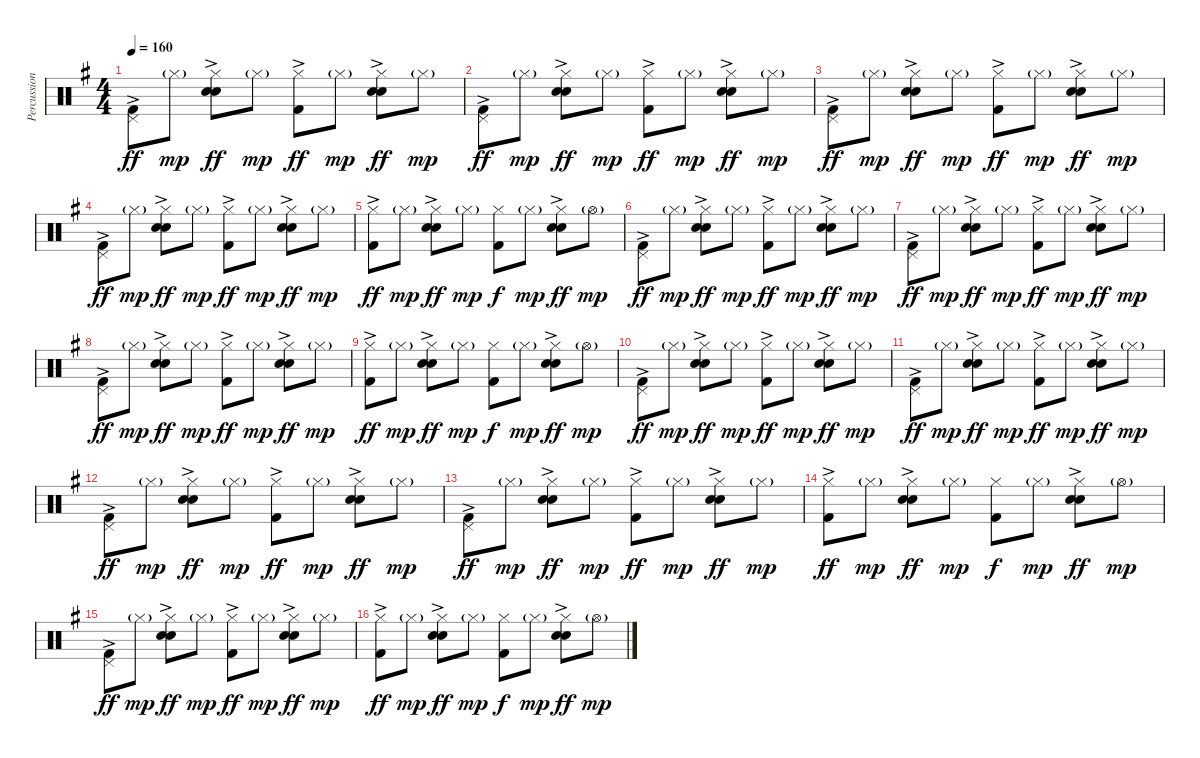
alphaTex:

\track ("Percussion" "Percussion") {instrument percussion}
\staff {score}
\articulation defaults
\ts (4 4)
\tempo 160
\clef neutral
\ks g
("Pedal Hi-Hat (hit)" "Kick (hit) 2"{ac}).8{dy ff} "Hi-Hat (closed)"{g}.8{dy mp} ("Hi-Hat (closed)" "Electric Snare (hit)"{ac} "Snare (hit) 2").8{dy ff} "Hi-Hat (closed)"{g}.8{dy mp} ("Hi-Hat (closed)" "Kick (hit) 2"{ac}).8{dy ff} "Hi-Hat (closed)"{g}.8{dy mp} ("Hi-Hat (closed)" "Electric Snare (hit)"{ac} "Snare (hit) 2").8{dy ff} "Hi-Hat (closed)"{g}.8{dy mp} |
("Pedal Hi-Hat (hit)" "Kick (hit) 2"{ac}).8{dy ff} "Hi-Hat (closed)"{g}.8{dy mp} ("Hi-Hat (closed)" "Electric Snare (hit)"{ac} "Snare (hit) 2").8{dy ff} "Hi-Hat (closed)"{g}.8{dy mp} ("Hi-Hat (closed)" "Kick (hit) 2"{ac}).8{dy ff} "Hi-Hat (closed)"{g}.8{dy mp} ("Hi-Hat (closed)" "Electric Snare (hit)"{ac} "Snare (hit) 2").8{dy ff} "Hi-Hat (closed)"{g}.8{dy mp} |
("Pedal Hi-Hat (hit)" "Kick (hit) 2"{ac}).8{dy ff} "Hi-Hat (closed)"{g}.8{dy mp} ("Hi-Hat (closed)" "Electric Snare (hit)"{ac} "Snare (hit) 2").8{dy ff} "Hi-Hat (closed)"{g}.8{dy mp} ("Hi-Hat (closed)" "Kick (hit) 2"{ac}).8{dy ff} "Hi-Hat (closed)"{g}.8{dy mp} ("Hi-Hat (closed)" "Electric Snare (hit)"{ac} "Snare (hit) 2").8{dy ff} "Hi-Hat (closed)"{g}.8{dy mp} |
("Pedal Hi-Hat (hit)" "Kick (hit) 2"{ac}).8{dy ff} "Hi-Hat (closed)"{g}.8{dy mp} ("Hi-Hat (closed)" "Electric Snare (hit)"{ac} "Snare (hit) 2").8{dy ff} "Hi-Hat (closed)"{g}.8{dy mp} ("Hi-Hat (closed)" "Kick (hit) 2"{ac}).8{dy ff} "Hi-Hat (closed)"{g}.8{dy mp} ("Hi-Hat (closed)" "Electric Snare (hit)"{ac} "Snare (hit) 2").8{dy ff} "Hi-Hat (closed)"{g}.8{dy mp} |
("Hi-Hat (closed)" "Kick (hit) 2"{ac}).8{dy ff} "Hi-Hat (closed)"{g}.8{dy mp} ("Hi-Hat (closed)" "Electric Snare (hit)"{ac} "Snare (hit) 2").8{dy ff} "Hi-Hat (closed)"{g}.8{dy mp} ("Hi-Hat (closed)" "Kick (hit) 2").8{dy f} "Hi-Hat (closed)"{g}.8{dy mp} ("Hi-Hat (closed)" "Electric Snare (hit)"{ac} "Snare (hit) 2").8{dy ff} "Hi-Hat (open)"{g}.8{dy mp} |
("Pedal Hi-Hat (hit)" "Kick (hit) 2"{ac}).8{dy ff} "Hi-Hat (closed)"{g}.8{dy mp} ("Hi-Hat (closed)" "Electric Snare (hit)"{ac} "Snare (hit) 2").8{dy ff} "Hi-Hat (closed)"{g}.8{dy mp} ("Hi-Hat (closed)" "Kick (hit) 2"{ac}).8{dy ff} "Hi-Hat (closed)"{g}.8{dy mp} ("Hi-Hat (closed)" "Electric Snare (hit)"{ac} "Snare (hit) 2").8{dy ff} "Hi-Hat (closed)"{g}.8{dy mp} |
("Pedal Hi-Hat (hit)" "Kick (hit) 2"{ac}).8{dy ff} "Hi-Hat (closed)"{g}.8{dy mp} ("Hi-Hat (closed)" "Electric Snare (hit)"{ac} "Snare (hit) 2").8{dy ff} "Hi-Hat (closed)"{g}.8{dy mp} ("Hi-Hat (closed)" "Kick (hit) 2"{ac}).8{dy ff} "Hi-Hat (closed)"{g}.8{dy mp} ("Hi-Hat (closed)" "Electric Snare (hit)"{ac} "Snare (hit) 2").8{dy ff} "Hi-Hat (closed)"{g}.8{dy mp} |
("Pedal Hi-Hat (hit)" "Kick (hit) 2"{ac}).8{dy ff} "Hi-Hat (closed)"{g}.8{dy mp} ("Hi-Hat (closed)" "Electric Snare (hit)"{ac} "Snare (hit) 2").8{dy ff} "Hi-Hat (closed)"{g}.8{dy mp} ("Hi-Hat (closed)" "Kick (hit) 2"{ac}).8{dy ff} "Hi-Hat (closed)"{g}.8{dy mp} ("Hi-Hat (closed)" "Electric Snare (hit)"{ac} "Snare (hit) 2").8{dy ff} "Hi-Hat (closed)"{g}.8{dy mp} |
("Hi-Hat (closed)" "Kick (hit) 2"{ac}).8{dy ff} "Hi-Hat (closed)"{g}.8{dy mp} ("Hi-Hat (closed)" "Electric Snare (hit)"{ac} "Snare (hit) 2").8{dy ff} "Hi-Hat (closed)"{g}.8{dy mp} ("Hi-Hat (closed)" "Kick (hit) 2").8{dy f} "Hi-Hat (closed)"{g}.8{dy mp} ("Hi-Hat (closed)" "Electric Snare (hit)"{ac} "Snare (hit) 2").8{dy ff} "Hi-Hat (open)"{g}.8{dy mp} |
("Pedal Hi-Hat (hit)" "Kick (hit) 2"{ac}).8{dy ff} "Hi-Hat (closed)"{g}.8{dy mp} ("Hi-Hat (closed)" "Electric Snare (hit)"{ac} "Snare (hit) 2").8{dy ff} "Hi-Hat (closed)"{g}.8{dy mp} ("Hi-Hat (closed)" "Kick (hit) 2"{ac}).8{dy ff} "Hi-Hat (closed)"{g}.8{dy mp} ("Hi-Hat (closed)" "Electric Snare (hit)"{ac} "Snare (hit) 2").8{dy ff} "Hi-Hat (closed)"{g}.8{dy mp} |
("Pedal Hi-Hat (hit)" "Kick (hit) 2"{ac}).8{dy ff} "Hi-Hat (closed)"{g}.8{dy mp} ("Hi-Hat (closed)" "Electric Snare (hit)"{ac} "Snare (hit) 2").8{dy ff} "Hi-Hat (closed)"{g}.8{dy mp} ("Hi-Hat (closed)" "Kick (hit) 2"{ac}).8{dy ff} "Hi-Hat (closed)"{g}.8{dy mp} ("Hi-Hat (closed)" "Electric Snare (hit)"{ac} "Snare (hit) 2").8{dy ff} "Hi-Hat (closed)"{g}.8{dy mp} |
("Pedal Hi-Hat (hit)" "Kick (hit) 2"{ac}).8{dy ff} "Hi-Hat (closed)"{g}.8{dy mp} ("Hi-Hat (closed)" "Electric Snare (hit)"{ac} "Snare (hit) 2").8{dy ff} "Hi-Hat (closed)"{g}.8{dy mp} ("Hi-Hat (closed)" "Kick (hit) 2"{ac}).8{dy ff} "Hi-Hat (closed)"{g}.8{dy mp} ("Hi-Hat (closed)" "Electric Snare (hit)"{ac} "Snare (hit) 2").8{dy ff} "Hi-Hat (closed)"{g}.8{dy mp} |
("Pedal Hi-Hat (hit)" "Kick (hit) 2"{ac}).8{dy ff} "Hi-Hat (closed)"{g}.8{dy mp} ("Hi-Hat (closed)" "Electric Snare (hit)"{ac} "Snare (hit) 2").8{dy ff} "Hi-Hat (closed)"{g}.8{dy mp} ("Hi-Hat (closed)" "Kick (hit) 2"{ac}).8{dy ff} "Hi-Hat (closed)"{g}.8{dy mp} ("Hi-Hat (closed)" "Electric Snare (hit)"{ac} "Snare (hit) 2").8{dy ff} "Hi-Hat (closed)"{g}.8{dy mp} |
("Hi-Hat (closed)" "Kick (hit) 2"{ac}).8{dy ff} "Hi-Hat (closed)"{g}.8{dy mp} ("Hi-Hat (closed)" "Electric Snare (hit)"{ac} "Snare (hit) 2").8{dy ff} "Hi-Hat (closed)"{g}.8{dy mp} ("Hi-Hat (closed)" "Kick (hit) 2").8{dy f} "Hi-Hat (closed)"{g}.8{dy mp} ("Hi-Hat (closed)" "Electric Snare (hit)"{ac} "Snare (hit) 2").8{dy ff} "Hi-Hat (open)"{g}.8{dy mp} |
("Pedal Hi-Hat (hit)" "Kick (hit) 2"{ac}).8{dy ff} "Hi-Hat (closed)"{g}.8{dy mp} ("Hi-Hat (closed)" "Electric Snare (hit)"{ac} "Snare (hit) 2").8{dy ff} "Hi-Hat (closed)"{g}.8{dy mp} ("Hi-Hat (closed)" "Kick (hit) 2"{ac}).8{dy ff} "Hi-Hat (closed)"{g}.8{dy mp} ("Hi-Hat (closed)" "Electric Snare (hit)"{ac} "Snare (hit) 2").8{dy ff} "Hi-Hat (closed)"{g}.8{dy mp} |
("Hi-Hat (closed)" "Kick (hit) 2"{ac}).8{dy ff} "Hi-Hat (closed)"{g}.8{dy mp} ("Hi-Hat (closed)" "Electric Snare (hit)"{ac} "Snare (hit) 2").8{dy ff} "Hi-Hat (closed)"{g}.8{dy mp} ("Hi-Hat (closed)" "Kick (hit) 2").8{dy f} "Hi-Hat (closed)"{g}.8{dy mp} ("Hi-Hat (closed)" "Electric Snare (hit)"{ac} "Snare (hit) 2").8{dy ff} "Hi-Hat (open)"{g}.8{dy mp}
